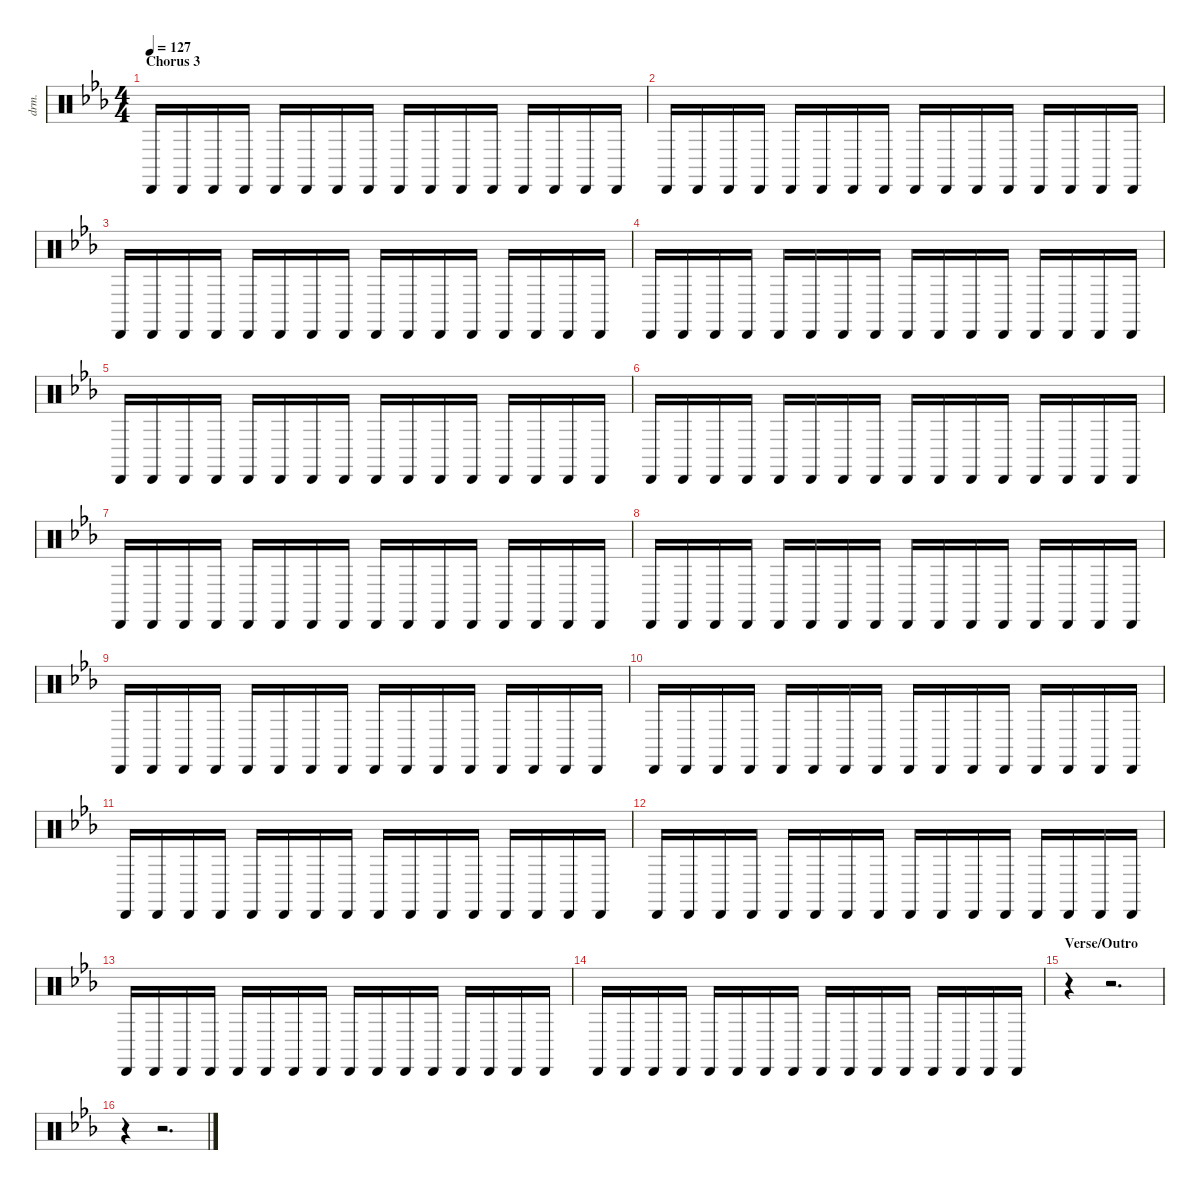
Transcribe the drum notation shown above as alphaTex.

\defaultSystemsLayout 4
\hideDynamics
\bracketExtendMode nobrackets
\otherSystemsTrackNameOrientation horizontal
\track ("Maracas" "drm.") {instrument percussion}
\staff {score}
\articulation defaults
\ts (4 4)
\section ("" "Chorus 3")
\tempo 127
\clef neutral
\ks eb "Cabasa (hit)"{acc forcenatural}.16{dy mf} "Cabasa (hit)"{acc forcenatural}.16{dy p} "Cabasa (hit)"{acc forcenatural}.16 "Cabasa (hit)"{acc forcenatural}.16 "Cabasa (hit)"{acc forcenatural}.16{dy mf} "Cabasa (hit)"{acc forcenatural}.16{dy p} "Cabasa (hit)"{acc forcenatural}.16 "Cabasa (hit)"{acc forcenatural}.16 "Cabasa (hit)"{acc forcenatural}.16{dy mf} "Cabasa (hit)"{acc forcenatural}.16{dy p} "Cabasa (hit)"{acc forcenatural}.16 "Cabasa (hit)"{acc forcenatural}.16 "Cabasa (hit)"{acc forcenatural}.16{dy mf} "Cabasa (hit)"{acc forcenatural}.16{dy p} "Cabasa (hit)"{acc forcenatural}.16 "Cabasa (hit)"{acc forcenatural}.16
|
"Cabasa (hit)"{acc forcenatural}.16{dy mf} "Cabasa (hit)"{acc forcenatural}.16{dy p} "Cabasa (hit)"{acc forcenatural}.16 "Cabasa (hit)"{acc forcenatural}.16 "Cabasa (hit)"{acc forcenatural}.16{dy mf} "Cabasa (hit)"{acc forcenatural}.16{dy p} "Cabasa (hit)"{acc forcenatural}.16 "Cabasa (hit)"{acc forcenatural}.16 "Cabasa (hit)"{acc forcenatural}.16{dy mf} "Cabasa (hit)"{acc forcenatural}.16{dy p} "Cabasa (hit)"{acc forcenatural}.16 "Cabasa (hit)"{acc forcenatural}.16 "Cabasa (hit)"{acc forcenatural}.16{dy mf} "Cabasa (hit)"{acc forcenatural}.16{dy p} "Cabasa (hit)"{acc forcenatural}.16 "Cabasa (hit)"{acc forcenatural}.16 |
"Cabasa (hit)"{acc forcenatural}.16{dy mf} "Cabasa (hit)"{acc forcenatural}.16{dy p} "Cabasa (hit)"{acc forcenatural}.16 "Cabasa (hit)"{acc forcenatural}.16 "Cabasa (hit)"{acc forcenatural}.16{dy mf} "Cabasa (hit)"{acc forcenatural}.16{dy p} "Cabasa (hit)"{acc forcenatural}.16 "Cabasa (hit)"{acc forcenatural}.16 "Cabasa (hit)"{acc forcenatural}.16{dy mf} "Cabasa (hit)"{acc forcenatural}.16{dy p} "Cabasa (hit)"{acc forcenatural}.16 "Cabasa (hit)"{acc forcenatural}.16 "Cabasa (hit)"{acc forcenatural}.16{dy mf} "Cabasa (hit)"{acc forcenatural}.16{dy p} "Cabasa (hit)"{acc forcenatural}.16 "Cabasa (hit)"{acc forcenatural}.16 |
"Cabasa (hit)"{acc forcenatural}.16{dy mf} "Cabasa (hit)"{acc forcenatural}.16{dy p} "Cabasa (hit)"{acc forcenatural}.16 "Cabasa (hit)"{acc forcenatural}.16 "Cabasa (hit)"{acc forcenatural}.16{dy mf} "Cabasa (hit)"{acc forcenatural}.16{dy p} "Cabasa (hit)"{acc forcenatural}.16 "Cabasa (hit)"{acc forcenatural}.16 "Cabasa (hit)"{acc forcenatural}.16{dy mf} "Cabasa (hit)"{acc forcenatural}.16{dy p} "Cabasa (hit)"{acc forcenatural}.16 "Cabasa (hit)"{acc forcenatural}.16 "Cabasa (hit)"{acc forcenatural}.16{dy mf} "Cabasa (hit)"{acc forcenatural}.16{dy p} "Cabasa (hit)"{acc forcenatural}.16 "Cabasa (hit)"{acc forcenatural}.16 |
"Cabasa (hit)"{acc forcenatural}.16{dy mf} "Cabasa (hit)"{acc forcenatural}.16{dy p} "Cabasa (hit)"{acc forcenatural}.16 "Cabasa (hit)"{acc forcenatural}.16 "Cabasa (hit)"{acc forcenatural}.16{dy mf} "Cabasa (hit)"{acc forcenatural}.16{dy p} "Cabasa (hit)"{acc forcenatural}.16 "Cabasa (hit)"{acc forcenatural}.16 "Cabasa (hit)"{acc forcenatural}.16{dy mf} "Cabasa (hit)"{acc forcenatural}.16{dy p} "Cabasa (hit)"{acc forcenatural}.16 "Cabasa (hit)"{acc forcenatural}.16 "Cabasa (hit)"{acc forcenatural}.16{dy mf} "Cabasa (hit)"{acc forcenatural}.16{dy p} "Cabasa (hit)"{acc forcenatural}.16 "Cabasa (hit)"{acc forcenatural}.16 |
"Cabasa (hit)"{acc forcenatural}.16{dy mf} "Cabasa (hit)"{acc forcenatural}.16{dy p} "Cabasa (hit)"{acc forcenatural}.16 "Cabasa (hit)"{acc forcenatural}.16 "Cabasa (hit)"{acc forcenatural}.16{dy mf} "Cabasa (hit)"{acc forcenatural}.16{dy p} "Cabasa (hit)"{acc forcenatural}.16 "Cabasa (hit)"{acc forcenatural}.16 "Cabasa (hit)"{acc forcenatural}.16{dy mf} "Cabasa (hit)"{acc forcenatural}.16{dy p} "Cabasa (hit)"{acc forcenatural}.16 "Cabasa (hit)"{acc forcenatural}.16 "Cabasa (hit)"{acc forcenatural}.16{dy mf} "Cabasa (hit)"{acc forcenatural}.16{dy p} "Cabasa (hit)"{acc forcenatural}.16 "Cabasa (hit)"{acc forcenatural}.16 |
"Cabasa (hit)"{acc forcenatural}.16{dy mf} "Cabasa (hit)"{acc forcenatural}.16{dy p} "Cabasa (hit)"{acc forcenatural}.16 "Cabasa (hit)"{acc forcenatural}.16 "Cabasa (hit)"{acc forcenatural}.16{dy mf} "Cabasa (hit)"{acc forcenatural}.16{dy p} "Cabasa (hit)"{acc forcenatural}.16 "Cabasa (hit)"{acc forcenatural}.16 "Cabasa (hit)"{acc forcenatural}.16{dy mf} "Cabasa (hit)"{acc forcenatural}.16{dy p} "Cabasa (hit)"{acc forcenatural}.16 "Cabasa (hit)"{acc forcenatural}.16 "Cabasa (hit)"{acc forcenatural}.16{dy mf} "Cabasa (hit)"{acc forcenatural}.16{dy p} "Cabasa (hit)"{acc forcenatural}.16 "Cabasa (hit)"{acc forcenatural}.16 |
"Cabasa (hit)"{acc forcenatural}.16{dy mf} "Cabasa (hit)"{acc forcenatural}.16{dy p} "Cabasa (hit)"{acc forcenatural}.16 "Cabasa (hit)"{acc forcenatural}.16 "Cabasa (hit)"{acc forcenatural}.16{dy mf} "Cabasa (hit)"{acc forcenatural}.16{dy p} "Cabasa (hit)"{acc forcenatural}.16 "Cabasa (hit)"{acc forcenatural}.16 "Cabasa (hit)"{acc forcenatural}.16{dy mf} "Cabasa (hit)"{acc forcenatural}.16{dy p} "Cabasa (hit)"{acc forcenatural}.16 "Cabasa (hit)"{acc forcenatural}.16 "Cabasa (hit)"{acc forcenatural}.16{dy mf} "Cabasa (hit)"{acc forcenatural}.16{dy p} "Cabasa (hit)"{acc forcenatural}.16 "Cabasa (hit)"{acc forcenatural}.16 |
"Cabasa (hit)"{acc forcenatural}.16{dy mf} "Cabasa (hit)"{acc forcenatural}.16{dy p} "Cabasa (hit)"{acc forcenatural}.16 "Cabasa (hit)"{acc forcenatural}.16 "Cabasa (hit)"{acc forcenatural}.16{dy mf} "Cabasa (hit)"{acc forcenatural}.16{dy p} "Cabasa (hit)"{acc forcenatural}.16 "Cabasa (hit)"{acc forcenatural}.16 "Cabasa (hit)"{acc forcenatural}.16{dy mf} "Cabasa (hit)"{acc forcenatural}.16{dy p} "Cabasa (hit)"{acc forcenatural}.16 "Cabasa (hit)"{acc forcenatural}.16 "Cabasa (hit)"{acc forcenatural}.16{dy mf} "Cabasa (hit)"{acc forcenatural}.16{dy p} "Cabasa (hit)"{acc forcenatural}.16 "Cabasa (hit)"{acc forcenatural}.16 |
"Cabasa (hit)"{acc forcenatural}.16{dy mf} "Cabasa (hit)"{acc forcenatural}.16{dy p} "Cabasa (hit)"{acc forcenatural}.16 "Cabasa (hit)"{acc forcenatural}.16 "Cabasa (hit)"{acc forcenatural}.16{dy mf} "Cabasa (hit)"{acc forcenatural}.16{dy p} "Cabasa (hit)"{acc forcenatural}.16 "Cabasa (hit)"{acc forcenatural}.16 "Cabasa (hit)"{acc forcenatural}.16{dy mf} "Cabasa (hit)"{acc forcenatural}.16{dy p} "Cabasa (hit)"{acc forcenatural}.16 "Cabasa (hit)"{acc forcenatural}.16 "Cabasa (hit)"{acc forcenatural}.16{dy mf} "Cabasa (hit)"{acc forcenatural}.16{dy p} "Cabasa (hit)"{acc forcenatural}.16 "Cabasa (hit)"{acc forcenatural}.16 |
"Cabasa (hit)"{acc forcenatural}.16{dy mf} "Cabasa (hit)"{acc forcenatural}.16{dy p} "Cabasa (hit)"{acc forcenatural}.16 "Cabasa (hit)"{acc forcenatural}.16 "Cabasa (hit)"{acc forcenatural}.16{dy mf} "Cabasa (hit)"{acc forcenatural}.16{dy p} "Cabasa (hit)"{acc forcenatural}.16 "Cabasa (hit)"{acc forcenatural}.16 "Cabasa (hit)"{acc forcenatural}.16{dy mf} "Cabasa (hit)"{acc forcenatural}.16{dy p} "Cabasa (hit)"{acc forcenatural}.16 "Cabasa (hit)"{acc forcenatural}.16 "Cabasa (hit)"{acc forcenatural}.16{dy mf} "Cabasa (hit)"{acc forcenatural}.16{dy p} "Cabasa (hit)"{acc forcenatural}.16 "Cabasa (hit)"{acc forcenatural}.16 |
"Cabasa (hit)"{acc forcenatural}.16{dy mf} "Cabasa (hit)"{acc forcenatural}.16{dy p} "Cabasa (hit)"{acc forcenatural}.16 "Cabasa (hit)"{acc forcenatural}.16 "Cabasa (hit)"{acc forcenatural}.16{dy mf} "Cabasa (hit)"{acc forcenatural}.16{dy p} "Cabasa (hit)"{acc forcenatural}.16 "Cabasa (hit)"{acc forcenatural}.16 "Cabasa (hit)"{acc forcenatural}.16{dy mf} "Cabasa (hit)"{acc forcenatural}.16{dy p} "Cabasa (hit)"{acc forcenatural}.16 "Cabasa (hit)"{acc forcenatural}.16 "Cabasa (hit)"{acc forcenatural}.16{dy mf} "Cabasa (hit)"{acc forcenatural}.16{dy p} "Cabasa (hit)"{acc forcenatural}.16 "Cabasa (hit)"{acc forcenatural}.16 |
"Cabasa (hit)"{acc forcenatural}.16{dy mf} "Cabasa (hit)"{acc forcenatural}.16{dy p} "Cabasa (hit)"{acc forcenatural}.16 "Cabasa (hit)"{acc forcenatural}.16 "Cabasa (hit)"{acc forcenatural}.16{dy mf} "Cabasa (hit)"{acc forcenatural}.16{dy p} "Cabasa (hit)"{acc forcenatural}.16 "Cabasa (hit)"{acc forcenatural}.16 "Cabasa (hit)"{acc forcenatural}.16{dy mf} "Cabasa (hit)"{acc forcenatural}.16{dy p} "Cabasa (hit)"{acc forcenatural}.16 "Cabasa (hit)"{acc forcenatural}.16 "Cabasa (hit)"{acc forcenatural}.16{dy mf} "Cabasa (hit)"{acc forcenatural}.16{dy p} "Cabasa (hit)"{acc forcenatural}.16 "Cabasa (hit)"{acc forcenatural}.16 |
"Cabasa (hit)"{acc forcenatural}.16{dy mf} "Cabasa (hit)"{acc forcenatural}.16{dy p} "Cabasa (hit)"{acc forcenatural}.16 "Cabasa (hit)"{acc forcenatural}.16 "Cabasa (hit)"{acc forcenatural}.16{dy mf} "Cabasa (hit)"{acc forcenatural}.16{dy p} "Cabasa (hit)"{acc forcenatural}.16 "Cabasa (hit)"{acc forcenatural}.16 "Cabasa (hit)"{acc forcenatural}.16{dy mf} "Cabasa (hit)"{acc forcenatural}.16{dy p} "Cabasa (hit)"{acc forcenatural}.16 "Cabasa (hit)"{acc forcenatural}.16 "Cabasa (hit)"{acc forcenatural}.16{dy mf} "Cabasa (hit)"{acc forcenatural}.16{dy p} "Cabasa (hit)"{acc forcenatural}.16 "Cabasa (hit)"{acc forcenatural}.16 |
\section ("" "Verse/Outro")
r.4 r.2{d} |
r.4 r.2{d}
